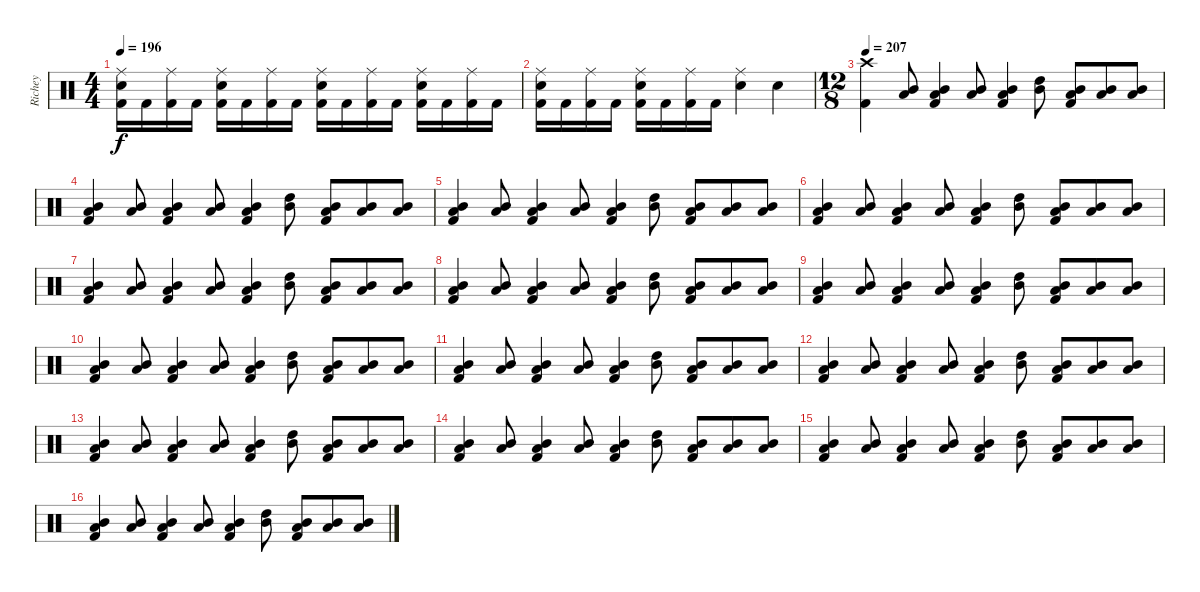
\track ("Richey" "Richey") {instrument percussion}
\staff {score}
\articulation defaults
\ts (4 4)
\tempo 196
\clef neutral
\ks c
("Ride (middle)" "Snare (hit) 2" "Kick (hit) 2").16{dy f} "Kick (hit) 2".16 ("Ride (middle)" "Kick (hit) 2").16 "Kick (hit) 2".16 ("Ride (middle)" "Snare (hit) 2" "Kick (hit) 2").16 "Kick (hit) 2".16 ("Ride (middle)" "Kick (hit) 2").16 "Kick (hit) 2".16 ("Ride (middle)" "Snare (hit) 2" "Kick (hit) 2").16 "Kick (hit) 2".16 ("Ride (middle)" "Kick (hit) 2").16 "Kick (hit) 2".16 ("Ride (middle)" "Snare (hit) 2" "Kick (hit) 2").16 "Kick (hit) 2".16 ("Ride (middle)" "Kick (hit) 2").16 "Kick (hit) 2".16 |
("Ride (middle)" "Snare (hit) 2" "Kick (hit) 2").16 "Kick (hit) 2".16 ("Ride (middle)" "Kick (hit) 2").16 "Kick (hit) 2".16 ("Ride (middle)" "Snare (hit) 2" "Kick (hit) 2").16 "Kick (hit) 2".16 ("Ride (middle)" "Kick (hit) 2").16 "Kick (hit) 2".16 ("Ride (middle)" "Snare (hit) 2").4 "Snare (hit) 2".4 |
\ts (12 8)
\tempo 207
("Crash high (hit)" "Kick (hit) 2").4 ("Mid Tom (hit)" "Low Tom (hit)").8 ("Mid Tom (hit)" "Low Tom (hit)" "Kick (hit) 2").4 ("Mid Tom (hit)" "Low Tom (hit)").8 ("Mid Tom (hit)" "Low Tom (hit)" "Kick (hit) 2").4 ("High Tom (hit)" "Mid Tom (hit)").8 ("Mid Tom (hit)" "Low Tom (hit)" "Kick (hit) 2").8 ("Mid Tom (hit)" "Low Tom (hit)").8 ("Mid Tom (hit)" "Low Tom (hit)").8 |
("Mid Tom (hit)" "Low Tom (hit)" "Kick (hit) 2").4 ("Mid Tom (hit)" "Low Tom (hit)").8 ("Mid Tom (hit)" "Low Tom (hit)" "Kick (hit) 2").4 ("Mid Tom (hit)" "Low Tom (hit)").8 ("Mid Tom (hit)" "Low Tom (hit)" "Kick (hit) 2").4 ("High Tom (hit)" "Mid Tom (hit)").8 ("Mid Tom (hit)" "Low Tom (hit)" "Kick (hit) 2").8 ("Mid Tom (hit)" "Low Tom (hit)").8 ("Mid Tom (hit)" "Low Tom (hit)").8 |
("Mid Tom (hit)" "Low Tom (hit)" "Kick (hit) 2").4 ("Mid Tom (hit)" "Low Tom (hit)").8 ("Mid Tom (hit)" "Low Tom (hit)" "Kick (hit) 2").4 ("Mid Tom (hit)" "Low Tom (hit)").8 ("Mid Tom (hit)" "Low Tom (hit)" "Kick (hit) 2").4 ("High Tom (hit)" "Mid Tom (hit)").8 ("Mid Tom (hit)" "Low Tom (hit)" "Kick (hit) 2").8 ("Mid Tom (hit)" "Low Tom (hit)").8 ("Mid Tom (hit)" "Low Tom (hit)").8 |
("Mid Tom (hit)" "Low Tom (hit)" "Kick (hit) 2").4 ("Mid Tom (hit)" "Low Tom (hit)").8 ("Mid Tom (hit)" "Low Tom (hit)" "Kick (hit) 2").4 ("Mid Tom (hit)" "Low Tom (hit)").8 ("Mid Tom (hit)" "Low Tom (hit)" "Kick (hit) 2").4 ("High Tom (hit)" "Mid Tom (hit)").8 ("Mid Tom (hit)" "Low Tom (hit)" "Kick (hit) 2").8 ("Mid Tom (hit)" "Low Tom (hit)").8 ("Mid Tom (hit)" "Low Tom (hit)").8 |
("Mid Tom (hit)" "Low Tom (hit)" "Kick (hit) 2").4 ("Mid Tom (hit)" "Low Tom (hit)").8 ("Mid Tom (hit)" "Low Tom (hit)" "Kick (hit) 2").4 ("Mid Tom (hit)" "Low Tom (hit)").8 ("Mid Tom (hit)" "Low Tom (hit)" "Kick (hit) 2").4 ("High Tom (hit)" "Mid Tom (hit)").8 ("Mid Tom (hit)" "Low Tom (hit)" "Kick (hit) 2").8 ("Mid Tom (hit)" "Low Tom (hit)").8 ("Mid Tom (hit)" "Low Tom (hit)").8 |
("Mid Tom (hit)" "Low Tom (hit)" "Kick (hit) 2").4 ("Mid Tom (hit)" "Low Tom (hit)").8 ("Mid Tom (hit)" "Low Tom (hit)" "Kick (hit) 2").4 ("Mid Tom (hit)" "Low Tom (hit)").8 ("Mid Tom (hit)" "Low Tom (hit)" "Kick (hit) 2").4 ("High Tom (hit)" "Mid Tom (hit)").8 ("Mid Tom (hit)" "Low Tom (hit)" "Kick (hit) 2").8 ("Mid Tom (hit)" "Low Tom (hit)").8 ("Mid Tom (hit)" "Low Tom (hit)").8 |
("Mid Tom (hit)" "Low Tom (hit)" "Kick (hit) 2").4 ("Mid Tom (hit)" "Low Tom (hit)").8 ("Mid Tom (hit)" "Low Tom (hit)" "Kick (hit) 2").4 ("Mid Tom (hit)" "Low Tom (hit)").8 ("Mid Tom (hit)" "Low Tom (hit)" "Kick (hit) 2").4 ("High Tom (hit)" "Mid Tom (hit)").8 ("Mid Tom (hit)" "Low Tom (hit)" "Kick (hit) 2").8 ("Mid Tom (hit)" "Low Tom (hit)").8 ("Mid Tom (hit)" "Low Tom (hit)").8 |
("Mid Tom (hit)" "Low Tom (hit)" "Kick (hit) 2").4 ("Mid Tom (hit)" "Low Tom (hit)").8 ("Mid Tom (hit)" "Low Tom (hit)" "Kick (hit) 2").4 ("Mid Tom (hit)" "Low Tom (hit)").8 ("Mid Tom (hit)" "Low Tom (hit)" "Kick (hit) 2").4 ("High Tom (hit)" "Mid Tom (hit)").8 ("Mid Tom (hit)" "Low Tom (hit)" "Kick (hit) 2").8 ("Mid Tom (hit)" "Low Tom (hit)").8 ("Mid Tom (hit)" "Low Tom (hit)").8 |
("Mid Tom (hit)" "Low Tom (hit)" "Kick (hit) 2").4 ("Mid Tom (hit)" "Low Tom (hit)").8 ("Mid Tom (hit)" "Low Tom (hit)" "Kick (hit) 2").4 ("Mid Tom (hit)" "Low Tom (hit)").8 ("Mid Tom (hit)" "Low Tom (hit)" "Kick (hit) 2").4 ("High Tom (hit)" "Mid Tom (hit)").8 ("Mid Tom (hit)" "Low Tom (hit)" "Kick (hit) 2").8 ("Mid Tom (hit)" "Low Tom (hit)").8 ("Mid Tom (hit)" "Low Tom (hit)").8 |
("Mid Tom (hit)" "Low Tom (hit)" "Kick (hit) 2").4 ("Mid Tom (hit)" "Low Tom (hit)").8 ("Mid Tom (hit)" "Low Tom (hit)" "Kick (hit) 2").4 ("Mid Tom (hit)" "Low Tom (hit)").8 ("Mid Tom (hit)" "Low Tom (hit)" "Kick (hit) 2").4 ("High Tom (hit)" "Mid Tom (hit)").8 ("Mid Tom (hit)" "Low Tom (hit)" "Kick (hit) 2").8 ("Mid Tom (hit)" "Low Tom (hit)").8 ("Mid Tom (hit)" "Low Tom (hit)").8 |
("Mid Tom (hit)" "Low Tom (hit)" "Kick (hit) 2").4 ("Mid Tom (hit)" "Low Tom (hit)").8 ("Mid Tom (hit)" "Low Tom (hit)" "Kick (hit) 2").4 ("Mid Tom (hit)" "Low Tom (hit)").8 ("Mid Tom (hit)" "Low Tom (hit)" "Kick (hit) 2").4 ("High Tom (hit)" "Mid Tom (hit)").8 ("Mid Tom (hit)" "Low Tom (hit)" "Kick (hit) 2").8 ("Mid Tom (hit)" "Low Tom (hit)").8 ("Mid Tom (hit)" "Low Tom (hit)").8 |
("Mid Tom (hit)" "Low Tom (hit)" "Kick (hit) 2").4 ("Mid Tom (hit)" "Low Tom (hit)").8 ("Mid Tom (hit)" "Low Tom (hit)" "Kick (hit) 2").4 ("Mid Tom (hit)" "Low Tom (hit)").8 ("Mid Tom (hit)" "Low Tom (hit)" "Kick (hit) 2").4 ("High Tom (hit)" "Mid Tom (hit)").8 ("Mid Tom (hit)" "Low Tom (hit)" "Kick (hit) 2").8 ("Mid Tom (hit)" "Low Tom (hit)").8 ("Mid Tom (hit)" "Low Tom (hit)").8 |
("Mid Tom (hit)" "Low Tom (hit)" "Kick (hit) 2").4 ("Mid Tom (hit)" "Low Tom (hit)").8 ("Mid Tom (hit)" "Low Tom (hit)" "Kick (hit) 2").4 ("Mid Tom (hit)" "Low Tom (hit)").8 ("Mid Tom (hit)" "Low Tom (hit)" "Kick (hit) 2").4 ("High Tom (hit)" "Mid Tom (hit)").8 ("Mid Tom (hit)" "Low Tom (hit)" "Kick (hit) 2").8 ("Mid Tom (hit)" "Low Tom (hit)").8 ("Mid Tom (hit)" "Low Tom (hit)").8 |
("Mid Tom (hit)" "Low Tom (hit)" "Kick (hit) 2").4 ("Mid Tom (hit)" "Low Tom (hit)").8 ("Mid Tom (hit)" "Low Tom (hit)" "Kick (hit) 2").4 ("Mid Tom (hit)" "Low Tom (hit)").8 ("Mid Tom (hit)" "Low Tom (hit)" "Kick (hit) 2").4 ("High Tom (hit)" "Mid Tom (hit)").8 ("Mid Tom (hit)" "Low Tom (hit)" "Kick (hit) 2").8 ("Mid Tom (hit)" "Low Tom (hit)").8 ("Mid Tom (hit)" "Low Tom (hit)").8
